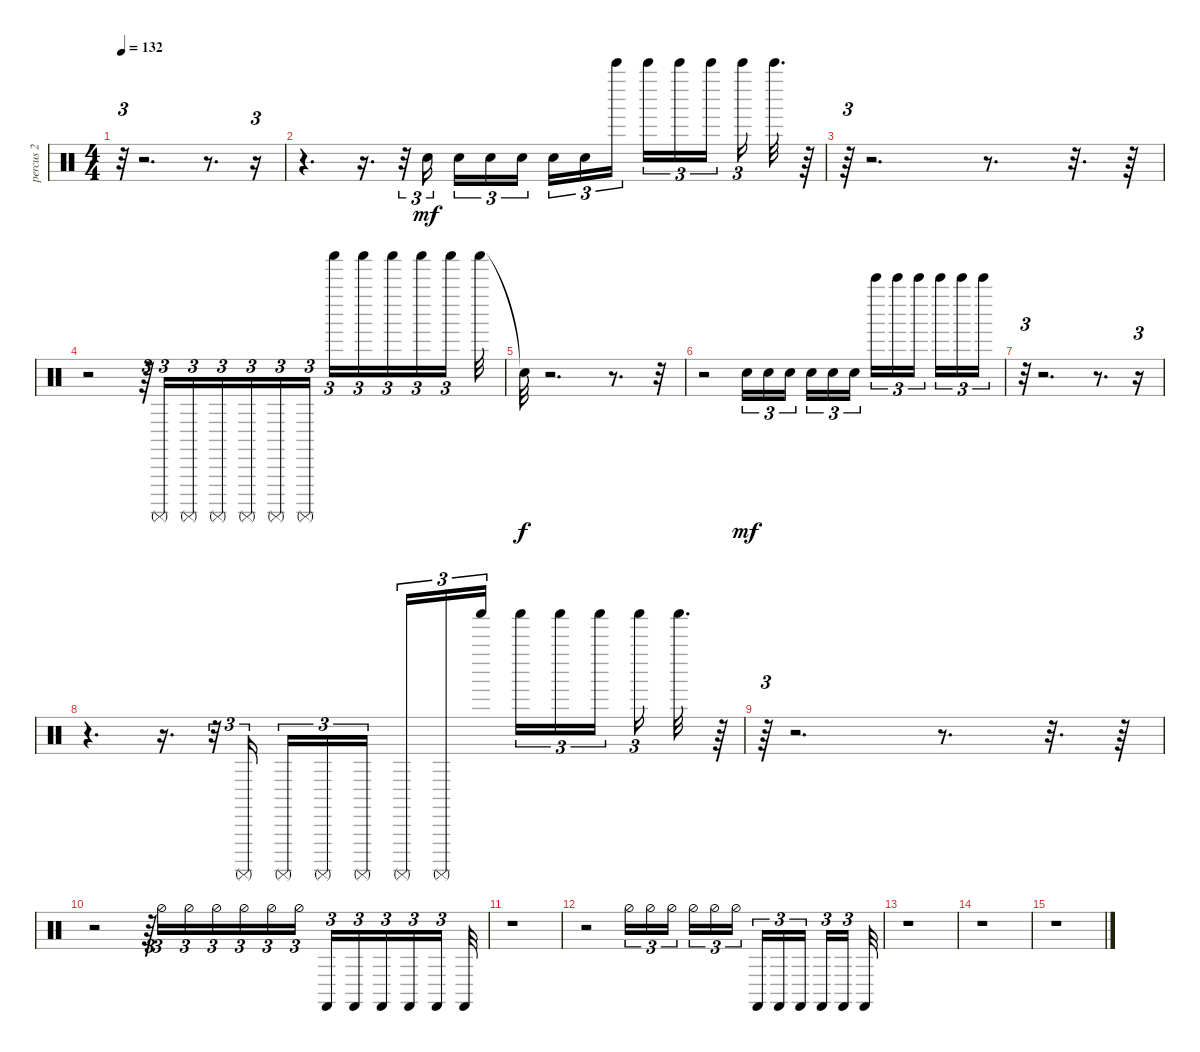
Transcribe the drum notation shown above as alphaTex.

\track ("percus 2" "percus 2") {instrument percussion}
\staff {score}
\articulation defaults
\ts (4 4)
\tempo 132
\clef neutral
\ks c
r.32{tu (3 2) dy mf} r.2{d} r.8{d} r.16{tu (3 2)} |
r.4{d} r.16{d} r.32{tu (3 2)} "Snare (hit)".16{tu (3 2)} "Snare (hit)".16{tu (3 2)} "Snare (hit)".16{tu (3 2)} "Snare (hit)".16{tu (3 2)} "Snare (hit)".16{tu (3 2)} "Snare (hit)".16{tu (3 2)} "Bell Tree (hit)".16{tu (3 2)} "Bell Tree (hit)".16{tu (3 2)} "Bell Tree (hit)".16{tu (3 2)} "Bell Tree (hit)".16{tu (3 2)} "Bell Tree (hit)".16{tu (3 2)} "Bell Tree (hit)".32{d} r.64 |
r.64{tu (3 2)} r.2{d} r.8{d} r.32{d} r.64 |
r.2 r.64{tu (3 2)} "Surdo (mute)".16{tu (3 2)} "Surdo (mute)".16{tu (3 2)} "Surdo (mute)".16{tu (3 2)} "Surdo (mute)".16{tu (3 2)} "Surdo (mute)".16{tu (3 2)} "Surdo (mute)".16{tu (3 2)} "Shaker (hit)".16{tu (3 2)} "Shaker (hit)".16{tu (3 2)} "Shaker (hit)".16{tu (3 2)} "Shaker (hit)".16{tu (3 2)} "Shaker (hit)".16{tu (3 2)} "Shaker (hit)".32 |
"Snare (hit)"{t}.32{dy f} r.2{d} r.8{d} r.32 |
r.2 "Snare (hit)".16{tu (3 2) dy mf} "Snare (hit)".16{tu (3 2)} "Snare (hit)".16{tu (3 2)} "Snare (hit)".16{tu (3 2)} "Snare (hit)".16{tu (3 2)} "Snare (hit)".16{tu (3 2)} "Bell Tree (hit)".16{tu (3 2)} "Bell Tree (hit)".16{tu (3 2)} "Bell Tree (hit)".16{tu (3 2)} "Bell Tree (hit)".16{tu (3 2)} "Bell Tree (hit)".16{tu (3 2)} "Bell Tree (hit)".16{tu (3 2)} |
r.32{tu (3 2)} r.2{d} r.8{d} r.16{tu (3 2)} |
r.4{d} r.16{d} r.32{tu (3 2)} "Surdo (mute)".16{tu (3 2)} "Surdo (mute)".16{tu (3 2)} "Surdo (mute)".16{tu (3 2)} "Surdo (mute)".16{tu (3 2)} "Surdo (mute)".16{tu (3 2)} "Surdo (mute)".16{tu (3 2)} "Shaker (hit)".16{tu (3 2)} "Shaker (hit)".16{tu (3 2)} "Shaker (hit)".16{tu (3 2)} "Shaker (hit)".16{tu (3 2)} "Shaker (hit)".16{tu (3 2)} "Shaker (hit)".32{d} r.64 |
r.64{tu (3 2)} r.2{d} r.8{d} r.32{d} r.64 |
r.2 r.64{tu (3 2)} "Hi-Hat (half)".16{tu (3 2)} "Hi-Hat (half)".16{tu (3 2)} "Hi-Hat (half)".16{tu (3 2)} "Hi-Hat (half)".16{tu (3 2)} "Hi-Hat (half)".16{tu (3 2)} "Hi-Hat (half)".16{tu (3 2)} "Castanets (hit)".16{tu (3 2)} "Castanets (hit)".16{tu (3 2)} "Castanets (hit)".16{tu (3 2)} "Castanets (hit)".16{tu (3 2)} "Castanets (hit)".16{tu (3 2)} "Castanets (hit)".32 |
r.1 |
r.2 "Hi-Hat (half)".16{tu (3 2)} "Hi-Hat (half)".16{tu (3 2)} "Hi-Hat (half)".16{tu (3 2)} "Hi-Hat (half)".16{tu (3 2)} "Hi-Hat (half)".16{tu (3 2)} "Hi-Hat (half)".16{tu (3 2)} "Castanets (hit)".16{tu (3 2)} "Castanets (hit)".16{tu (3 2)} "Castanets (hit)".16{tu (3 2)} "Castanets (hit)".16{tu (3 2)} "Castanets (hit)".16{tu (3 2)} "Castanets (hit)".32 |
r.1 |
r.1 |
r.1
